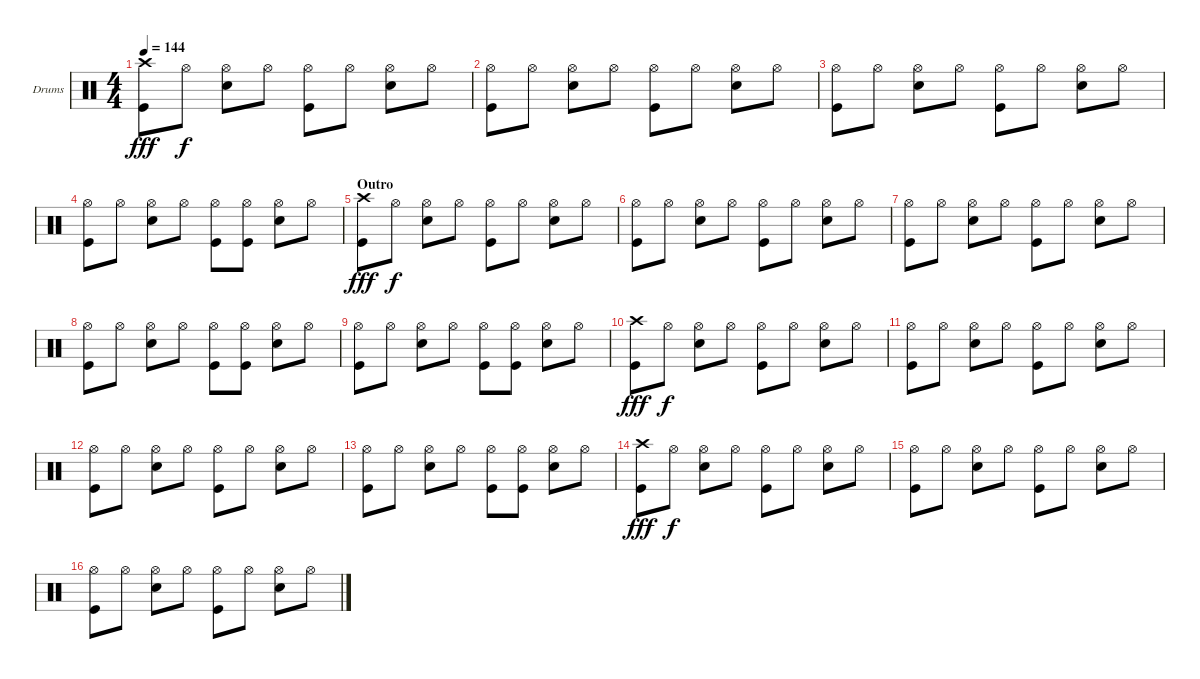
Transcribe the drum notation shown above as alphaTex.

\bracketExtendMode groupsimilarinstruments
\firstSystemTrackNameOrientation horizontal
\otherSystemsTrackNameOrientation horizontal
\track ("Drums" "Drums") {instrument percussion}
\staff {score}
\articulation defaults
\ts (4 4)
\tempo 144
\clef neutral
\ks c
("Crash high (hit)" "Kick (hit)").8{dy fff} "Hi-Hat (open)".8{dy f} ("Hi-Hat (open)" "Snare (hit) 2").8 "Hi-Hat (open)".8 ("Hi-Hat (open)" "Kick (hit)").8 "Hi-Hat (open)".8 ("Hi-Hat (open)" "Snare (hit) 2").8 "Hi-Hat (open)".8 |
("Hi-Hat (open)" "Kick (hit)").8 "Hi-Hat (open)".8 ("Hi-Hat (open)" "Snare (hit) 2").8 "Hi-Hat (open)".8 ("Hi-Hat (open)" "Kick (hit)").8 "Hi-Hat (open)".8 ("Hi-Hat (open)" "Snare (hit) 2").8 "Hi-Hat (open)".8 |
("Hi-Hat (open)" "Kick (hit)").8 "Hi-Hat (open)".8 ("Hi-Hat (open)" "Snare (hit) 2").8 "Hi-Hat (open)".8 ("Hi-Hat (open)" "Kick (hit)").8 "Hi-Hat (open)".8 ("Hi-Hat (open)" "Snare (hit) 2").8 "Hi-Hat (open)".8 |
("Hi-Hat (open)" "Kick (hit)").8 "Hi-Hat (open)".8 ("Hi-Hat (open)" "Snare (hit) 2").8 "Hi-Hat (open)".8 ("Hi-Hat (open)" "Kick (hit)").8 ("Hi-Hat (open)" "Kick (hit)").8 ("Hi-Hat (open)" "Snare (hit) 2").8 "Hi-Hat (open)".8 |
\section ("" "Outro")
("Crash high (hit)" "Kick (hit)").8{dy fff} "Hi-Hat (open)".8{dy f} ("Hi-Hat (open)" "Snare (hit) 2").8 "Hi-Hat (open)".8 ("Hi-Hat (open)" "Kick (hit)").8 "Hi-Hat (open)".8 ("Hi-Hat (open)" "Snare (hit) 2").8 "Hi-Hat (open)".8 |
("Hi-Hat (open)" "Kick (hit)").8 "Hi-Hat (open)".8 ("Hi-Hat (open)" "Snare (hit) 2").8 "Hi-Hat (open)".8 ("Hi-Hat (open)" "Kick (hit)").8 "Hi-Hat (open)".8 ("Hi-Hat (open)" "Snare (hit) 2").8 "Hi-Hat (open)".8 |
("Hi-Hat (open)" "Kick (hit)").8 "Hi-Hat (open)".8 ("Hi-Hat (open)" "Snare (hit) 2").8 "Hi-Hat (open)".8 ("Hi-Hat (open)" "Kick (hit)").8 "Hi-Hat (open)".8 ("Hi-Hat (open)" "Snare (hit) 2").8 "Hi-Hat (open)".8 |
("Hi-Hat (open)" "Kick (hit)").8 "Hi-Hat (open)".8 ("Hi-Hat (open)" "Snare (hit) 2").8 "Hi-Hat (open)".8 ("Hi-Hat (open)" "Kick (hit)").8 ("Hi-Hat (open)" "Kick (hit)").8 ("Hi-Hat (open)" "Snare (hit) 2").8 "Hi-Hat (open)".8 |
("Hi-Hat (open)" "Kick (hit)").8 "Hi-Hat (open)".8 ("Hi-Hat (open)" "Snare (hit) 2").8 "Hi-Hat (open)".8 ("Hi-Hat (open)" "Kick (hit)").8 ("Hi-Hat (open)" "Kick (hit)").8 ("Hi-Hat (open)" "Snare (hit) 2").8 "Hi-Hat (open)".8 |
("Crash high (hit)" "Kick (hit)").8{dy fff} "Hi-Hat (open)".8{dy f} ("Hi-Hat (open)" "Snare (hit) 2").8 "Hi-Hat (open)".8 ("Hi-Hat (open)" "Kick (hit)").8 "Hi-Hat (open)".8 ("Hi-Hat (open)" "Snare (hit) 2").8 "Hi-Hat (open)".8 |
("Hi-Hat (open)" "Kick (hit)").8 "Hi-Hat (open)".8 ("Hi-Hat (open)" "Snare (hit) 2").8 "Hi-Hat (open)".8 ("Hi-Hat (open)" "Kick (hit)").8 "Hi-Hat (open)".8 ("Hi-Hat (open)" "Snare (hit) 2").8 "Hi-Hat (open)".8 |
("Hi-Hat (open)" "Kick (hit)").8 "Hi-Hat (open)".8 ("Hi-Hat (open)" "Snare (hit) 2").8 "Hi-Hat (open)".8 ("Hi-Hat (open)" "Kick (hit)").8 "Hi-Hat (open)".8 ("Hi-Hat (open)" "Snare (hit) 2").8 "Hi-Hat (open)".8 |
("Hi-Hat (open)" "Kick (hit)").8 "Hi-Hat (open)".8 ("Hi-Hat (open)" "Snare (hit) 2").8 "Hi-Hat (open)".8 ("Hi-Hat (open)" "Kick (hit)").8 ("Hi-Hat (open)" "Kick (hit)").8 ("Hi-Hat (open)" "Snare (hit) 2").8 "Hi-Hat (open)".8 |
("Crash high (hit)" "Kick (hit)").8{dy fff} "Hi-Hat (open)".8{dy f} ("Hi-Hat (open)" "Snare (hit) 2").8 "Hi-Hat (open)".8 ("Hi-Hat (open)" "Kick (hit)").8 "Hi-Hat (open)".8 ("Hi-Hat (open)" "Snare (hit) 2").8 "Hi-Hat (open)".8 |
("Hi-Hat (open)" "Kick (hit)").8 "Hi-Hat (open)".8 ("Hi-Hat (open)" "Snare (hit) 2").8 "Hi-Hat (open)".8 ("Hi-Hat (open)" "Kick (hit)").8 "Hi-Hat (open)".8 ("Hi-Hat (open)" "Snare (hit) 2").8 "Hi-Hat (open)".8 |
("Hi-Hat (open)" "Kick (hit)").8 "Hi-Hat (open)".8 ("Hi-Hat (open)" "Snare (hit) 2").8 "Hi-Hat (open)".8 ("Hi-Hat (open)" "Kick (hit)").8 "Hi-Hat (open)".8 ("Hi-Hat (open)" "Snare (hit) 2").8 "Hi-Hat (open)".8
